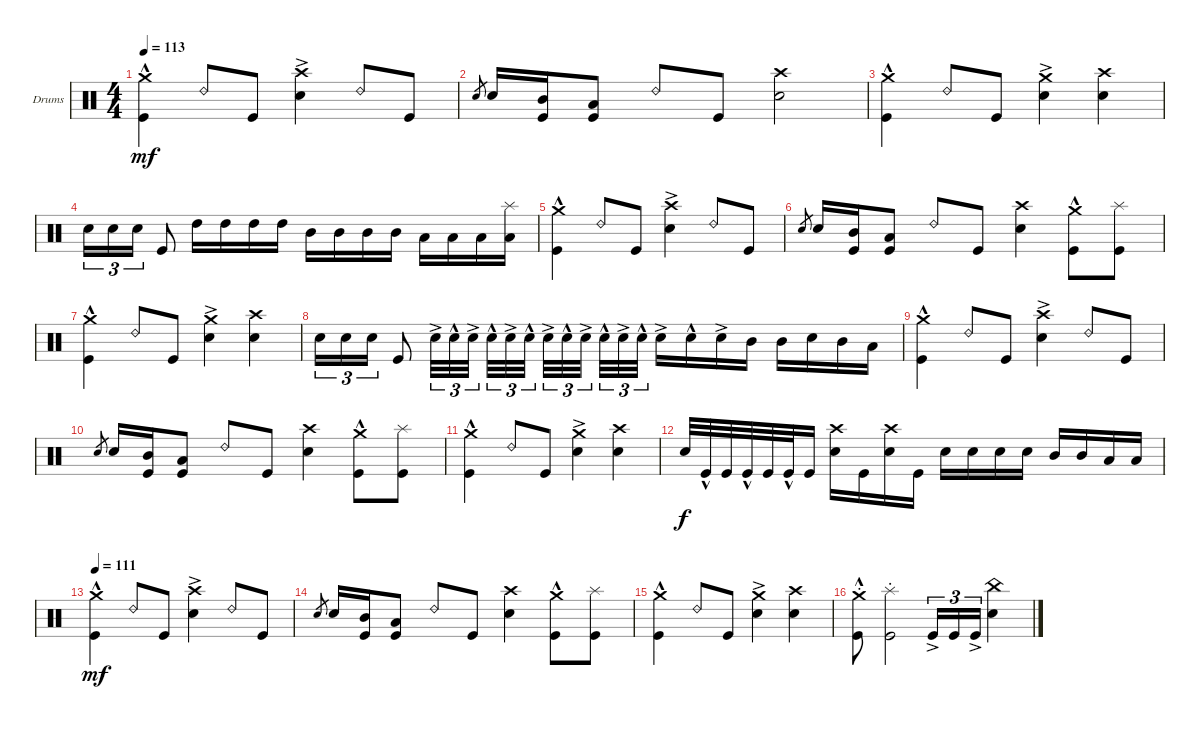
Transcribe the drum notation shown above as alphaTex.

\defaultSystemsLayout 4
\bracketExtendMode groupsimilarinstruments
\firstSystemTrackNameOrientation horizontal
\otherSystemsTrackNameOrientation horizontal
\track ("Drumkit" "Drums") {instrument percussion}
\staff {score}
\articulation defaults
\ts (4 4)
\tempo 113
\clef neutral
\ks c
("Kick (hit)" "Crash medium (hit)"{hac}).4{dy mf} "Ride (bell) 2".8 "Kick (hit)".8 ("Snare (hit) 2"{ac} "Crash high (hit)").4 "Ride (bell) 2".8 "Kick (hit)".8 |
"Snare (hit) 2".8{gr} "Snare (hit) 2".16 ("Kick (hit)" "Mid Tom (hit)").16 ("Kick (hit)" "Low Tom (hit)").8 "Ride (bell) 2".8 "Kick (hit)".8 ("Snare (hit) 2" "Crash high (hit)").2 |
("Kick (hit)" "Crash medium (hit)"{hac}).4 "Ride (bell) 2".8 "Kick (hit)".8 ("Snare (hit) 2"{ac} "Crash medium (hit)").4 ("Snare (hit) 2" "Crash high (hit)").4 |
"Snare (hit) 2".16{tu (3 2)} "Snare (hit) 2".16{tu (3 2)} "Snare (hit) 2".16{tu (3 2)} "Kick (hit)".8 "High Tom (hit)".16 "High Tom (hit)".16 "High Tom (hit)".16 "High Tom (hit)".16 "Mid Tom (hit)".16 "Mid Tom (hit)".16 "Mid Tom (hit)".16 "Mid Tom (hit)".16 "Low Tom (hit)".16 "Low Tom (hit)".16 "Low Tom (hit)".16 ("Low Tom (hit)" "Splash (hit)").16 |
("Kick (hit)" "Crash medium (hit)"{hac}).4 "Ride (bell) 2".8 "Kick (hit)".8 ("Snare (hit) 2"{ac} "Crash high (hit)").4 "Ride (bell) 2".8 "Kick (hit)".8 |
"Snare (hit) 2".8{gr} "Snare (hit) 2".16 ("Kick (hit)" "Mid Tom (hit)").16 ("Kick (hit)" "Low Tom (hit)").8 "Ride (bell) 2".8 "Kick (hit)".8 ("Snare (hit) 2" "Crash high (hit)").4 ("Kick (hit)" "Crash medium (hit)"{hac}).8 ("Kick (hit)" "Splash (hit)").8 |
("Kick (hit)" "Crash medium (hit)"{hac}).4 "Ride (bell) 2".8 "Kick (hit)".8 ("Snare (hit) 2"{ac} "Crash medium (hit)").4 ("Snare (hit) 2" "Crash high (hit)").4 |
"Snare (hit) 2".16{tu (3 2)} "Snare (hit) 2".16{tu (3 2)} "Snare (hit) 2".16{tu (3 2)} "Kick (hit)".8 "Snare (hit) 2"{ac}.32{tu (3 2)} "Snare (hit) 2"{hac}.32{tu (3 2)} "Snare (hit) 2"{ac}.32{tu (3 2)} "Snare (hit) 2"{hac}.32{tu (3 2)} "Snare (hit) 2"{ac}.32{tu (3 2)} "Snare (hit) 2"{hac}.32{tu (3 2)} "Snare (hit) 2"{ac}.32{tu (3 2)} "Snare (hit) 2"{hac}.32{tu (3 2)} "Snare (hit) 2"{ac}.32{tu (3 2)} "Snare (hit) 2"{hac}.32{tu (3 2)} "Snare (hit) 2"{ac}.32{tu (3 2)} "Snare (hit) 2"{hac}.32{tu (3 2)} "Snare (hit) 2"{ac}.16 "Snare (hit) 2"{hac}.16 "Snare (hit) 2"{ac}.16 "Mid Tom (hit)".16 "Mid Tom (hit)".16 "Snare (hit) 2".16 "Mid Tom (hit)".16 "Low Tom (hit)".16 |
("Kick (hit)" "Crash medium (hit)"{hac}).4 "Ride (bell) 2".8 "Kick (hit)".8 ("Snare (hit) 2"{ac} "Crash high (hit)").4 "Ride (bell) 2".8 "Kick (hit)".8 |
"Snare (hit) 2".8{gr} "Snare (hit) 2".16 ("Kick (hit)" "Mid Tom (hit)").16 ("Kick (hit)" "Low Tom (hit)").8 "Ride (bell) 2".8 "Kick (hit)".8 ("Snare (hit) 2" "Crash high (hit)").4 ("Kick (hit)" "Crash medium (hit)"{hac}).8 ("Kick (hit)" "Splash (hit)").8 |
("Kick (hit)" "Crash medium (hit)"{hac}).4 "Ride (bell) 2".8 "Kick (hit)".8 ("Snare (hit) 2"{ac} "Crash medium (hit)").4 ("Snare (hit) 2" "Crash high (hit)").4 |
"Snare (hit) 2".32{dy f} "Kick (hit)"{hac}.32 "Kick (hit)".32 "Kick (hit)"{hac}.32 "Kick (hit)".32 "Kick (hit)"{hac}.32 "Kick (hit)".16 ("Crash high (hit)" "Snare (hit) 2").16 "Kick (hit)".16 ("Crash high (hit)" "Snare (hit) 2").16 "Kick (hit)".16 "Snare (hit) 2".16 "Snare (hit) 2".16 "Snare (hit) 2".16 "Snare (hit) 2".16 "Mid Tom (hit)".16 "Mid Tom (hit)".16 "Low Tom (hit)".16 "Low Tom (hit)".16 |
\tempo 111
("Kick (hit)" "Crash medium (hit)"{hac}).4{dy mf} "Ride (bell) 2".8 "Kick (hit)".8 ("Snare (hit) 2"{ac} "Crash high (hit)").4 "Ride (bell) 2".8 "Kick (hit)".8 |
"Snare (hit) 2".8{gr} "Snare (hit) 2".16 ("Kick (hit)" "Mid Tom (hit)").16 ("Kick (hit)" "Low Tom (hit)").8 "Ride (bell) 2".8 "Kick (hit)".8 ("Snare (hit) 2" "Crash high (hit)").4 ("Kick (hit)" "Crash medium (hit)"{hac}).8 ("Kick (hit)" "Splash (hit)").8 |
("Kick (hit)" "Crash medium (hit)"{hac}).4 "Ride (bell) 2".8 "Kick (hit)".8 ("Snare (hit) 2"{ac} "Crash medium (hit)").4 ("Snare (hit) 2" "Crash high (hit)").4 |
("Kick (hit)" "Crash medium (hit)"{hac st}).8 ("Kick (hit)"{st} "Splash (hit)"{st}).2 "Kick (hit)"{ac}.16{tu (3 2)} "Kick (hit)".16{tu (3 2)} "Kick (hit)"{ac}.16{tu (3 2)} ("Snare (hit) 2" "China (hit)").4
